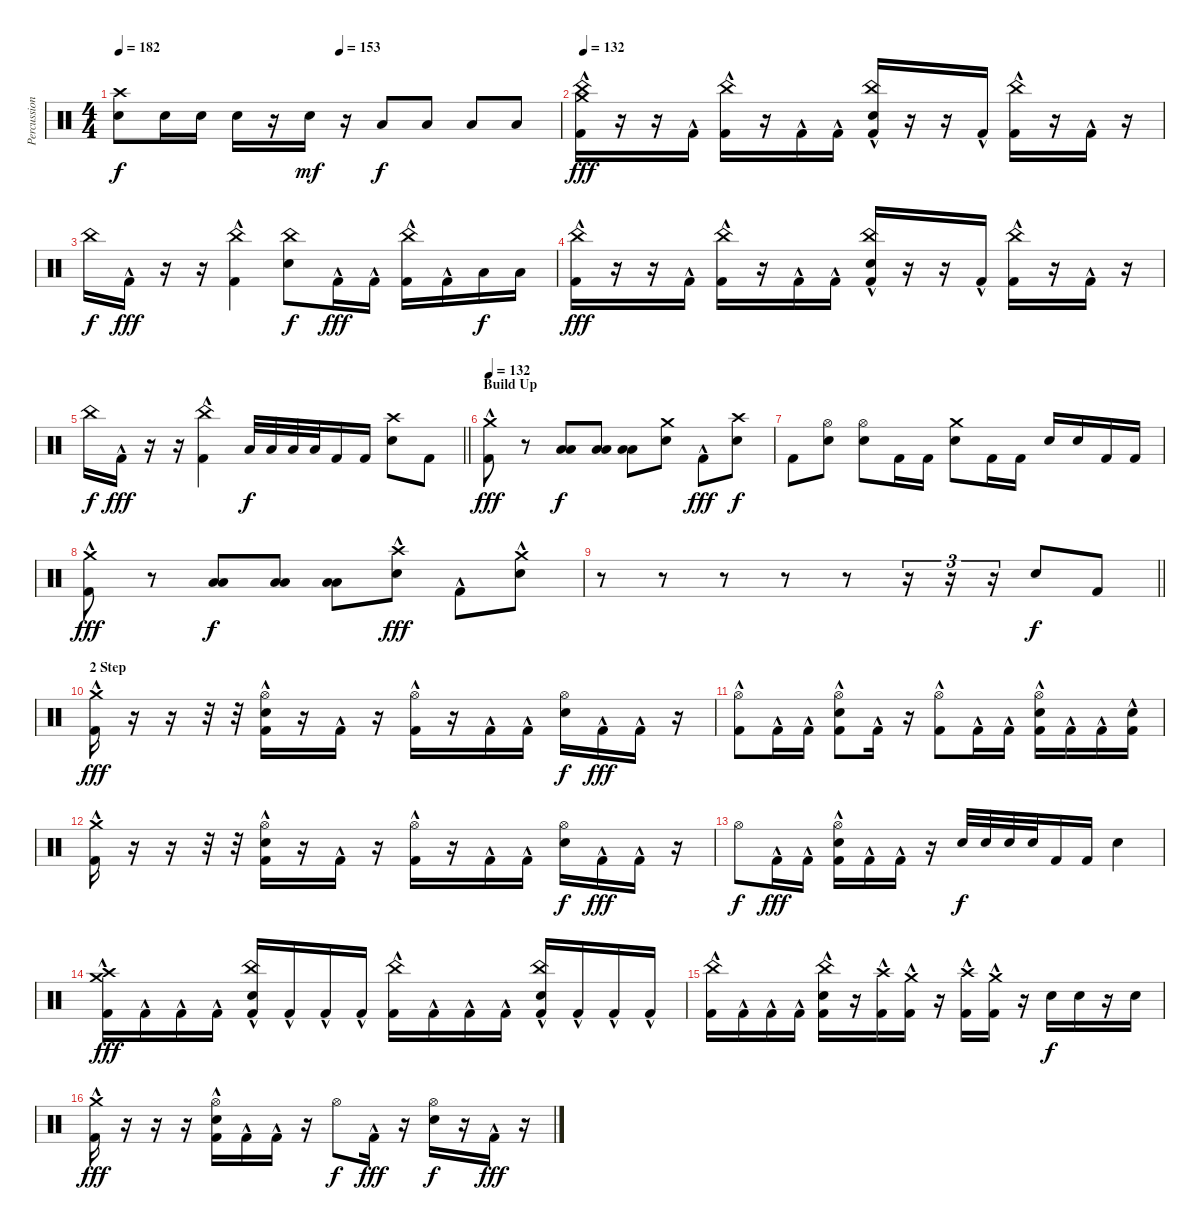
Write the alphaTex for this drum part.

\track ("Percussion" "Percussion") {instrument percussion}
\staff {score}
\articulation defaults
\ts (4 4)
\tempo 182
\tempo (153 0.5)
\clef neutral
\ks c
("Crash high (hit)" "Electric Snare (hit)").8{dy f} "Electric Snare (hit)".16 "Electric Snare (hit)".16 "Electric Snare (hit)".16 r.16 "Electric Snare (hit)".16{dy mf} r.16 "Low Tom (hit)".8{dy f} "Low Tom (hit)".8 "Low Floor Tom (hit)".8 "Low Floor Tom (hit)".8 |
\tempo 132
("China (hit)" "Crash medium (hit)" "Kick (hit) 2"{hac}).16{dy fff} r.16 r.16 "Kick (hit) 2"{hac}.16 ("China (hit)" "Kick (hit) 2"{hac}).16 r.16 "Kick (hit) 2"{hac}.16 "Kick (hit) 2"{hac}.16 ("China (hit)" "Electric Snare (hit)" "Kick (hit) 2"{hac}).16 r.16 r.16 "Kick (hit) 2"{hac}.16 ("China (hit)" "Kick (hit) 2"{hac}).16 r.16 "Kick (hit) 2"{hac}.16 r.16 |
"China (hit)".16{dy f} "Kick (hit) 2"{hac}.16{dy fff} r.16 r.16 ("China (hit)" "Kick (hit) 2"{hac}).4 ("China (hit)" "Electric Snare (hit)").8{dy f} "Kick (hit) 2"{hac}.16{dy fff} "Kick (hit) 2"{hac}.16 ("China (hit)" "Kick (hit) 2"{hac}).16 "Kick (hit) 2"{hac}.16 "Low Floor Tom (hit)".16{dy f} "Low Floor Tom (hit)".16 |
("China (hit)" "Kick (hit) 2"{hac}).16{dy fff} r.16 r.16 "Kick (hit) 2"{hac}.16 ("China (hit)" "Kick (hit) 2"{hac}).16 r.16 "Kick (hit) 2"{hac}.16 "Kick (hit) 2"{hac}.16 ("China (hit)" "Electric Snare (hit)" "Kick (hit) 2"{hac}).16 r.16 r.16 "Kick (hit) 2"{hac}.16 ("China (hit)" "Kick (hit) 2"{hac}).16 r.16 "Kick (hit) 2"{hac}.16 r.16 |
\barLineRight lightlight "China (hit)".16{dy f} "Kick (hit) 2"{hac}.16{dy fff}
r.16 r.16 ("China (hit)" "Kick (hit) 2"{hac}).4 "Low Tom (hit)".32{dy f} "Low Tom (hit)".32 "Low Floor Tom (hit)".32 "Low Floor Tom (hit)".32 "Kick (hit) 2".16 "Kick (hit) 2".16 ("Crash high (hit)" "Electric Snare (hit)").8 "Kick (hit) 2".8 |
\section ("" "Build Up")
\tempo 132
("Kick (hit) 2"{hac} "Crash medium (hit)").8{dy fff} r.8 ("Low Tom (hit)" "Low Floor Tom (hit)").8{dy f} ("Low Tom (hit)" "Low Floor Tom (hit)").8 ("Low Tom (hit)" "Low Floor Tom (hit)").8 ("Electric Snare (hit)" "Crash medium (hit)").8 "Kick (hit) 2"{hac}.8{dy fff} ("Electric Snare (hit)" "Crash high (hit)").8{dy f} |
"Kick (hit) 2".8 ("Hi-Hat (open)" "Electric Snare (hit)").8 ("Hi-Hat (open)" "Electric Snare (hit)").8 "Kick (hit) 2".16 "Kick (hit) 2".16 ("Crash medium (hit)" "Electric Snare (hit)").8 "Kick (hit) 2".16 "Kick (hit) 2".16 "Electric Snare (hit)".16 "Electric Snare (hit)".16 "Kick (hit) 2".16 "Kick (hit) 2".16 |
("Kick (hit) 2"{hac} "Crash medium (hit)").8{dy fff} r.8 ("Low Tom (hit)" "Low Floor Tom (hit)").8{dy f} ("Low Tom (hit)" "Low Floor Tom (hit)").8 ("Low Tom (hit)" "Low Floor Tom (hit)").8 ("Electric Snare (hit)"{hac} "Crash high (hit)").8{dy fff} "Kick (hit) 2"{hac}.8 ("Electric Snare (hit)"{hac} "Crash medium (hit)").8 |
\barLineRight lightlight
r.8{volume 0} r.8 r.8 r.8 r.8 r.16{tu (3 2)} r.16{tu (3 2)} r.16{tu (3 2)} "Electric Snare (hit)".8{dy f volume 13} "Kick (hit) 2".8 |
\section ("" "2 Step")
("Crash medium (hit)" "Kick (hit) 2"{hac}).16{dy fff} r.16 r.16 r.32 r.32 ("Electric Snare (hit)" "Hi-Hat (open)" "Kick (hit) 2"{hac}).16 r.16 "Kick (hit) 2"{hac}.16 r.16 ("Hi-Hat (open)" "Kick (hit) 2"{hac}).16 r.16 "Kick (hit) 2"{hac}.16 "Kick (hit) 2"{hac}.16 ("Electric Snare (hit)" "Hi-Hat (open)").16{dy f} "Kick (hit) 2"{hac}.16{dy fff} "Kick (hit) 2"{hac}.16 r.16 |
("Hi-Hat (open)" "Kick (hit) 2"{hac}).8 "Kick (hit) 2"{hac}.16 "Kick (hit) 2"{hac}.16 ("Electric Snare (hit)" "Hi-Hat (open)" "Kick (hit) 2"{hac}).8 "Kick (hit) 2"{hac}.16 r.16 ("Hi-Hat (open)" "Kick (hit) 2"{hac}).8 "Kick (hit) 2"{hac}.16 "Kick (hit) 2"{hac}.16 ("Electric Snare (hit)" "Hi-Hat (open)" "Kick (hit) 2"{hac}).16 "Kick (hit) 2"{hac}.16 "Kick (hit) 2"{hac}.16 ("Electric Snare (hit)" "Kick (hit) 2"{hac}).16 |
("Crash medium (hit)" "Kick (hit) 2"{hac}).16 r.16 r.16 r.32 r.32 ("Electric Snare (hit)" "Hi-Hat (open)" "Kick (hit) 2"{hac}).16 r.16 "Kick (hit) 2"{hac}.16 r.16 ("Hi-Hat (open)" "Kick (hit) 2"{hac}).16 r.16 "Kick (hit) 2"{hac}.16 "Kick (hit) 2"{hac}.16 ("Electric Snare (hit)" "Hi-Hat (open)").16{dy f} "Kick (hit) 2"{hac}.16{dy fff} "Kick (hit) 2"{hac}.16 r.16 |
"Hi-Hat (open)".8{dy f} "Kick (hit) 2"{hac}.16{dy fff} "Kick (hit) 2"{hac}.16 ("Electric Snare (hit)" "Hi-Hat (open)" "Kick (hit) 2"{hac}).16 "Kick (hit) 2"{hac}.16 "Kick (hit) 2"{hac}.16 r.16 "Electric Snare (hit)".32{dy f} "Electric Snare (hit)".32 "Electric Snare (hit)".32 "Electric Snare (hit)".32 "Kick (hit) 2".16 "Kick (hit) 2".16 "Electric Snare (hit)".4 |
("Crash high (hit)" "Crash medium (hit)" "Kick (hit) 2"{hac}).16{dy fff} "Kick (hit) 2"{hac}.16 "Kick (hit) 2"{hac}.16 "Kick (hit) 2"{hac}.16 ("Electric Snare (hit)" "China (hit)" "Kick (hit) 2"{hac}).16 "Kick (hit) 2"{hac}.16 "Kick (hit) 2"{hac}.16 "Kick (hit) 2"{hac}.16 ("China (hit)" "Kick (hit) 2"{hac}).16 "Kick (hit) 2"{hac}.16 "Kick (hit) 2"{hac}.16 "Kick (hit) 2"{hac}.16 ("Electric Snare (hit)" "China (hit)" "Kick (hit) 2"{hac}).16 "Kick (hit) 2"{hac}.16 "Kick (hit) 2"{hac}.16 "Kick (hit) 2"{hac}.16 |
("China (hit)" "Kick (hit) 2"{hac}).16 "Kick (hit) 2"{hac}.16 "Kick (hit) 2"{hac}.16 "Kick (hit) 2"{hac}.16 ("China (hit)" "Electric Snare (hit)" "Kick (hit) 2"{hac}).16 r.16 ("Crash high (hit)" "Kick (hit) 2"{hac}).16 ("Crash medium (hit)" "Kick (hit) 2"{hac}).16 r.16 ("Crash high (hit)" "Kick (hit) 2"{hac}).16 ("Crash medium (hit)" "Kick (hit) 2"{hac}).16 r.16 "Electric Snare (hit)".16{dy f} "Electric Snare (hit)".16 r.16 "Electric Snare (hit)".16 |
("Crash medium (hit)" "Kick (hit) 2"{hac}).16{dy fff} r.16 r.16 r.16 ("Electric Snare (hit)" "Hi-Hat (open)" "Kick (hit) 2"{hac}).16 "Kick (hit) 2"{hac}.16 "Kick (hit) 2"{hac}.16 r.16 "Hi-Hat (open)".8{dy f} "Kick (hit) 2"{hac}.16{dy fff} r.16 ("Electric Snare (hit)" "Hi-Hat (open)").16{dy f} r.16 "Kick (hit) 2"{hac}.16{dy fff} r.16
